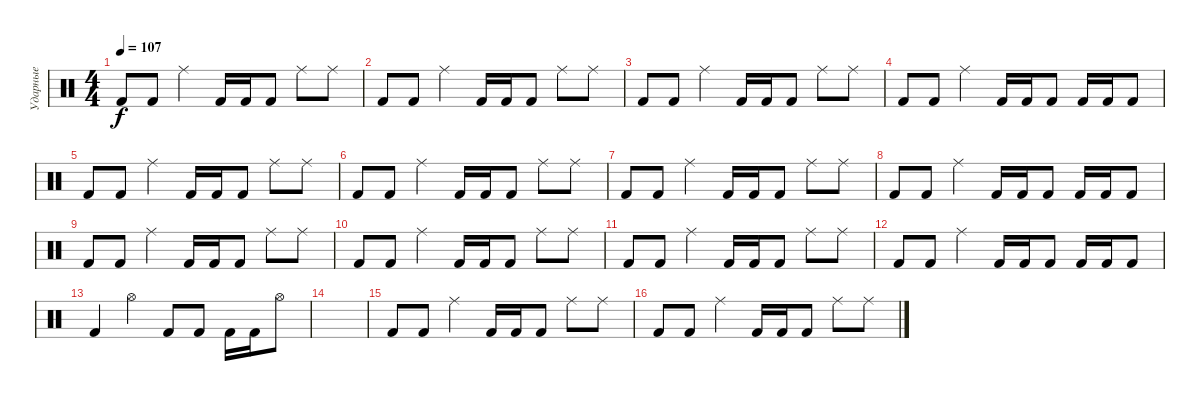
\track ("Ударные" "Ударные") {instrument percussion}
\staff {score}
\articulation defaults
\ts (4 4)
\tempo 107
\clef neutral
\ks c "Kick (hit) 2".8{dy f} "Kick (hit) 2".8 "Ride (middle)".4 "Kick (hit) 2".16 "Kick (hit) 2".16 "Kick (hit) 2".8 "Ride (middle)".8 "Ride (middle)".8
|
"Kick (hit) 2".8 "Kick (hit) 2".8 "Ride (middle)".4 "Kick (hit) 2".16 "Kick (hit) 2".16 "Kick (hit) 2".8 "Ride (middle)".8 "Ride (middle)".8 |
"Kick (hit) 2".8 "Kick (hit) 2".8 "Ride (middle)".4 "Kick (hit) 2".16 "Kick (hit) 2".16 "Kick (hit) 2".8 "Ride (middle)".8 "Ride (middle)".8 |
"Kick (hit) 2".8 "Kick (hit) 2".8 "Ride (middle)".4 "Kick (hit) 2".16 "Kick (hit) 2".16 "Kick (hit) 2".8 "Kick (hit) 2".16 "Kick (hit) 2".16 "Kick (hit) 2".8 |
"Kick (hit) 2".8 "Kick (hit) 2".8 "Ride (middle)".4 "Kick (hit) 2".16 "Kick (hit) 2".16 "Kick (hit) 2".8 "Ride (middle)".8 "Ride (middle)".8 |
"Kick (hit) 2".8 "Kick (hit) 2".8 "Ride (middle)".4 "Kick (hit) 2".16 "Kick (hit) 2".16 "Kick (hit) 2".8 "Ride (middle)".8 "Ride (middle)".8 |
"Kick (hit) 2".8 "Kick (hit) 2".8 "Ride (middle)".4 "Kick (hit) 2".16 "Kick (hit) 2".16 "Kick (hit) 2".8 "Ride (middle)".8 "Ride (middle)".8 |
"Kick (hit) 2".8 "Kick (hit) 2".8 "Ride (middle)".4 "Kick (hit) 2".16 "Kick (hit) 2".16 "Kick (hit) 2".8 "Kick (hit) 2".16 "Kick (hit) 2".16 "Kick (hit) 2".8 |
"Kick (hit) 2".8 "Kick (hit) 2".8 "Ride (middle)".4 "Kick (hit) 2".16 "Kick (hit) 2".16 "Kick (hit) 2".8 "Ride (middle)".8 "Ride (middle)".8 |
"Kick (hit) 2".8 "Kick (hit) 2".8 "Ride (middle)".4 "Kick (hit) 2".16 "Kick (hit) 2".16 "Kick (hit) 2".8 "Ride (middle)".8 "Ride (middle)".8 |
"Kick (hit) 2".8 "Kick (hit) 2".8 "Ride (middle)".4 "Kick (hit) 2".16 "Kick (hit) 2".16 "Kick (hit) 2".8 "Ride (middle)".8 "Ride (middle)".8 |
"Kick (hit) 2".8 "Kick (hit) 2".8 "Ride (middle)".4 "Kick (hit) 2".16 "Kick (hit) 2".16 "Kick (hit) 2".8 "Kick (hit) 2".16 "Kick (hit) 2".16 "Kick (hit) 2".8 |
"Kick (hit) 2".4 "Hi-Hat (open)".4 "Kick (hit) 2".8 "Kick (hit) 2".8 "Kick (hit) 2".16 "Kick (hit) 2".16 "Hi-Hat (open)".8 |
|
"Kick (hit) 2".8 "Kick (hit) 2".8 "Ride (middle)".4 "Kick (hit) 2".16 "Kick (hit) 2".16 "Kick (hit) 2".8 "Ride (middle)".8 "Ride (middle)".8 |
"Kick (hit) 2".8 "Kick (hit) 2".8 "Ride (middle)".4 "Kick (hit) 2".16 "Kick (hit) 2".16 "Kick (hit) 2".8 "Ride (middle)".8 "Ride (middle)".8
